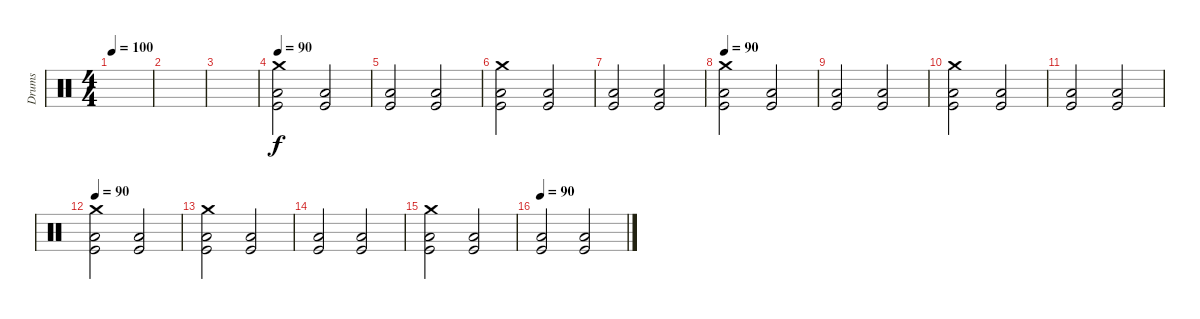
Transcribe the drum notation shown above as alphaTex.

\track ("Drums" "Drums") {instrument percussion}
\staff {score}
\articulation defaults
\ts (4 4)
\tempo 100
\clef neutral
\ks c
|
|
|
\tempo 90
("Crash medium (hit)" "Low Floor Tom (hit)" "Kick (hit)").2{volume 12} ("Low Floor Tom (hit)" "Kick (hit)").2 |
("Low Floor Tom (hit)" "Kick (hit)").2 ("Low Floor Tom (hit)" "Kick (hit)").2 |
("Crash medium (hit)" "Low Floor Tom (hit)" "Kick (hit)").2 ("Low Floor Tom (hit)" "Kick (hit)").2 |
("Low Floor Tom (hit)" "Kick (hit)").2 ("Low Floor Tom (hit)" "Kick (hit)").2 |
\tempo 90
("Crash medium (hit)" "Low Floor Tom (hit)" "Kick (hit)").2 ("Low Floor Tom (hit)" "Kick (hit)").2 |
("Low Floor Tom (hit)" "Kick (hit)").2 ("Low Floor Tom (hit)" "Kick (hit)").2 |
("Crash medium (hit)" "Low Floor Tom (hit)" "Kick (hit)").2 ("Low Floor Tom (hit)" "Kick (hit)").2 |
("Low Floor Tom (hit)" "Kick (hit)").2 ("Low Floor Tom (hit)" "Kick (hit)").2 |
\tempo 90
("Crash medium (hit)" "Low Floor Tom (hit)" "Kick (hit)").2 ("Low Floor Tom (hit)" "Kick (hit)").2 |
("Crash medium (hit)" "Low Floor Tom (hit)" "Kick (hit)").2 ("Low Floor Tom (hit)" "Kick (hit)").2 |
("Low Floor Tom (hit)" "Kick (hit)").2 ("Low Floor Tom (hit)" "Kick (hit)").2 |
("Crash medium (hit)" "Low Floor Tom (hit)" "Kick (hit)").2 ("Low Floor Tom (hit)" "Kick (hit)").2 |
\tempo 90
("Low Floor Tom (hit)" "Kick (hit)").2 ("Low Floor Tom (hit)" "Kick (hit)").2
